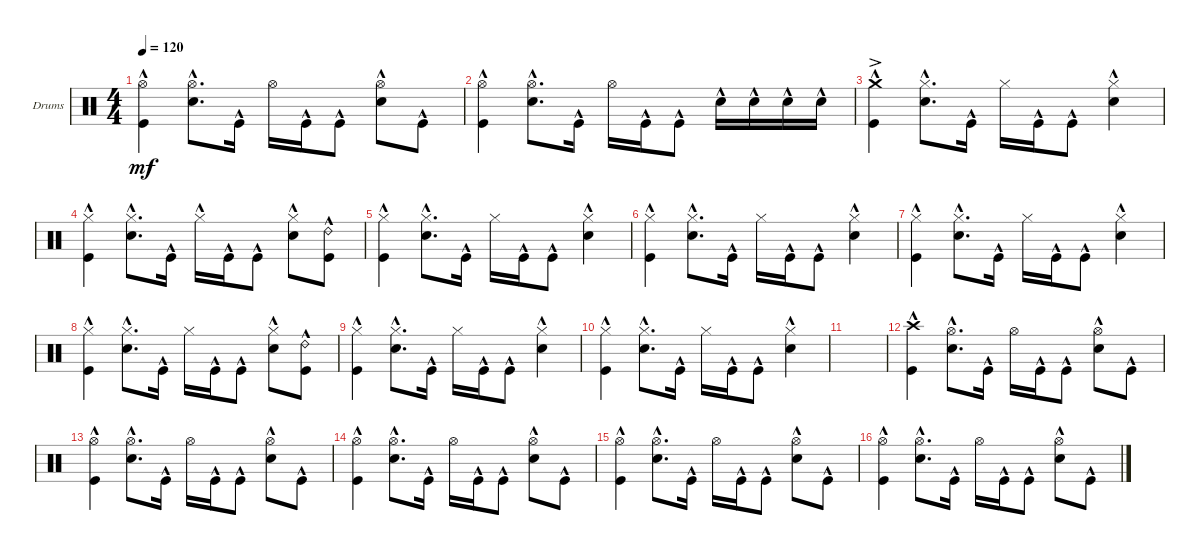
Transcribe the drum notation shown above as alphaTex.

\defaultSystemsLayout 4
\bracketExtendMode groupsimilarinstruments
\firstSystemTrackNameOrientation horizontal
\otherSystemsTrackNameOrientation horizontal
\track ("Drumkit" "Drums") {instrument percussion}
\staff {score}
\articulation defaults
\ts (4 4)
\tempo 120
\clef neutral
\ks c
("Kick (hit)"{hac} "Hi-Hat (open)").4{dy mf} ("Snare (hit) 2"{hac} "Hi-Hat (open)").8{d} "Kick (hit)"{hac}.16 "Hi-Hat (open)".16 "Kick (hit)"{hac}.16 "Kick (hit)"{hac}.8 ("Snare (hit) 2"{hac} "Hi-Hat (open)").8 "Kick (hit)"{hac}.8 |
("Kick (hit)"{hac} "Hi-Hat (open)").4 ("Snare (hit) 2"{hac} "Hi-Hat (open)").8{d} "Kick (hit)"{hac}.16 "Hi-Hat (open)".16 "Kick (hit)"{hac}.16 "Kick (hit)"{hac}.8 "Snare (hit) 2"{hac}.16 "Snare (hit) 2"{hac}.16 "Snare (hit) 2"{hac}.16 "Snare (hit) 2"{hac}.16 |
("Kick (hit)"{hac} "Crash medium (hit)"{ac}).4 ("Snare (hit) 2"{hac} "Hi-Hat (closed)").8{d} "Kick (hit)"{hac}.16 "Hi-Hat (closed)".16 "Kick (hit)"{hac}.16 "Kick (hit)"{hac}.8 ("Snare (hit) 2"{hac} "Hi-Hat (closed)").4 |
("Kick (hit)"{hac} "Hi-Hat (closed)").4 ("Snare (hit) 2"{hac} "Hi-Hat (closed)").8{d} "Kick (hit)"{hac}.16 "Hi-Hat (closed)"{hac}.16 "Kick (hit)"{hac}.16 "Kick (hit)"{hac}.8 ("Snare (hit) 2"{hac} "Hi-Hat (closed)"{hac}).8 ("Kick (hit)"{hac} "Ride (bell) 2"{hac}).8 |
("Kick (hit)"{hac} "Hi-Hat (closed)").4 ("Snare (hit) 2"{hac} "Hi-Hat (closed)").8{d} "Kick (hit)"{hac}.16 "Hi-Hat (closed)".16 "Kick (hit)"{hac}.16 "Kick (hit)"{hac}.8 ("Snare (hit) 2"{hac} "Hi-Hat (closed)").4 |
("Kick (hit)"{hac} "Hi-Hat (closed)").4 ("Snare (hit) 2"{hac} "Hi-Hat (closed)").8{d} "Kick (hit)"{hac}.16 "Hi-Hat (closed)".16 "Kick (hit)"{hac}.16 "Kick (hit)"{hac}.8 ("Snare (hit) 2"{hac} "Hi-Hat (closed)"{hac}).4 |
("Kick (hit)"{hac} "Hi-Hat (closed)").4 ("Snare (hit) 2"{hac} "Hi-Hat (closed)").8{d} "Kick (hit)"{hac}.16 "Hi-Hat (closed)".16 "Kick (hit)"{hac}.16 "Kick (hit)"{hac}.8 ("Snare (hit) 2"{hac} "Hi-Hat (closed)").4 |
("Kick (hit)"{hac} "Hi-Hat (closed)").4 ("Snare (hit) 2"{hac} "Hi-Hat (closed)").8{d} "Kick (hit)"{hac}.16 "Hi-Hat (closed)".16 "Kick (hit)"{hac}.16 "Kick (hit)"{hac}.8 ("Snare (hit) 2"{hac} "Hi-Hat (closed)").8 ("Kick (hit)"{hac} "Ride (bell) 2"{hac}).8 |
("Kick (hit)"{hac} "Hi-Hat (closed)").4 ("Snare (hit) 2"{hac} "Hi-Hat (closed)").8{d} "Kick (hit)"{hac}.16 "Hi-Hat (closed)".16 "Kick (hit)"{hac}.16 "Kick (hit)"{hac}.8 ("Snare (hit) 2"{hac} "Hi-Hat (closed)").4 |
("Kick (hit)"{hac} "Hi-Hat (closed)").4 ("Snare (hit) 2"{hac} "Hi-Hat (closed)").8{d} "Kick (hit)"{hac}.16 "Hi-Hat (closed)".16 "Kick (hit)"{hac}.16 "Kick (hit)"{hac}.8 ("Snare (hit) 2"{hac} "Hi-Hat (closed)").4 |
|
("Kick (hit)"{hac} "Crash high (hit)"{hac}).4 ("Snare (hit) 2"{hac} "Hi-Hat (open)").8{d} "Kick (hit)"{hac}.16 "Hi-Hat (open)".16 "Kick (hit)"{hac}.16 "Kick (hit)"{hac}.8 ("Snare (hit) 2"{hac} "Hi-Hat (open)").8 "Kick (hit)"{hac}.8 |
("Kick (hit)"{hac} "Hi-Hat (open)").4 ("Snare (hit) 2"{hac} "Hi-Hat (open)").8{d} "Kick (hit)"{hac}.16 "Hi-Hat (open)".16 "Kick (hit)"{hac}.16 "Kick (hit)"{hac}.8 ("Snare (hit) 2"{hac} "Hi-Hat (open)").8 "Kick (hit)"{hac}.8 |
("Kick (hit)"{hac} "Hi-Hat (open)").4 ("Snare (hit) 2"{hac} "Hi-Hat (open)").8{d} "Kick (hit)"{hac}.16 "Hi-Hat (open)".16 "Kick (hit)"{hac}.16 "Kick (hit)"{hac}.8 ("Snare (hit) 2"{hac} "Hi-Hat (open)").8 "Kick (hit)"{hac}.8 |
("Kick (hit)"{hac} "Hi-Hat (open)").4 ("Snare (hit) 2"{hac} "Hi-Hat (open)").8{d} "Kick (hit)"{hac}.16 "Hi-Hat (open)".16 "Kick (hit)"{hac}.16 "Kick (hit)"{hac}.8 ("Snare (hit) 2"{hac} "Hi-Hat (open)").8 "Kick (hit)"{hac}.8 |
("Kick (hit)"{hac} "Hi-Hat (open)").4 ("Snare (hit) 2"{hac} "Hi-Hat (open)").8{d} "Kick (hit)"{hac}.16 "Hi-Hat (open)".16 "Kick (hit)"{hac}.16 "Kick (hit)"{hac}.8 ("Snare (hit) 2"{hac} "Hi-Hat (open)").8 "Kick (hit)"{hac}.8
